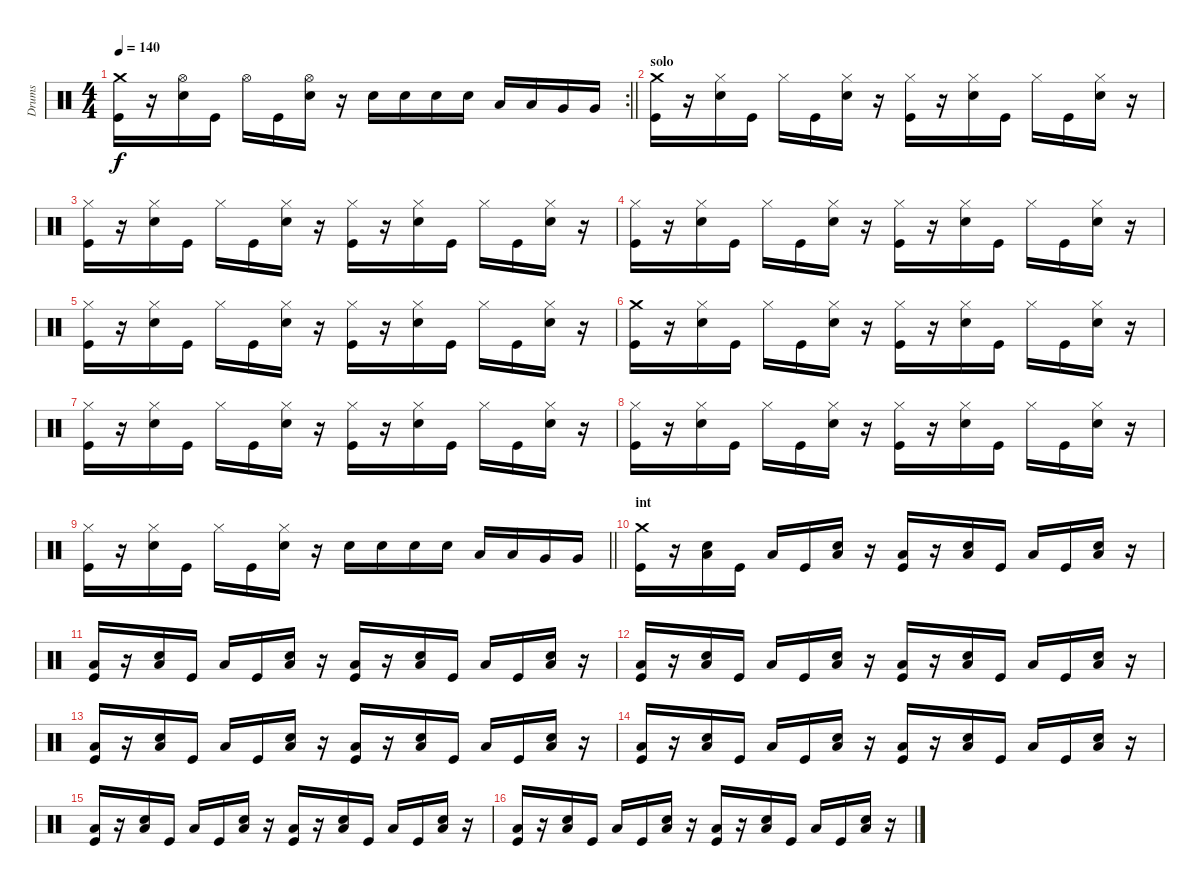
\track ("Drums" "Drums") {instrument percussion}
\staff {score}
\articulation defaults
\rc 2
\ts (4 4)
\tempo 140
\clef neutral
\barLineRight lightlight
\ks c
("Crash medium (hit)" "Kick (hit)").16{dy f} r.16 ("Hi-Hat (open)" "Snare (hit) 2").16 "Kick (hit)".16 "Hi-Hat (open)".16 "Kick (hit)".16 ("Hi-Hat (open)" "Snare (hit) 2").16 r.16 "Snare (hit) 2".16 "Snare (hit) 2".16 "Snare (hit) 2".16 "Snare (hit) 2".16 "Low Tom (hit)".16 "Low Tom (hit)".16 "Very Low Tom (hit)".16 "Very Low Tom (hit)".16 |
\section ("" "solo")
("Crash medium (hit)" "Kick (hit)").16 r.16 ("Hi-Hat (closed)" "Snare (hit) 2").16 "Kick (hit)".16 "Hi-Hat (closed)".16 "Kick (hit)".16 ("Hi-Hat (closed)" "Snare (hit) 2").16 r.16 ("Hi-Hat (closed)" "Kick (hit)").16 r.16 ("Hi-Hat (closed)" "Snare (hit) 2").16 "Kick (hit)".16 "Hi-Hat (closed)".16 "Kick (hit)".16 ("Hi-Hat (closed)" "Snare (hit) 2").16 r.16 |
("Hi-Hat (closed)" "Kick (hit)").16 r.16 ("Hi-Hat (closed)" "Snare (hit) 2").16 "Kick (hit)".16 "Hi-Hat (closed)".16 "Kick (hit)".16 ("Hi-Hat (closed)" "Snare (hit) 2").16 r.16 ("Hi-Hat (closed)" "Kick (hit)").16 r.16 ("Hi-Hat (closed)" "Snare (hit) 2").16 "Kick (hit)".16 "Hi-Hat (closed)".16 "Kick (hit)".16 ("Hi-Hat (closed)" "Snare (hit) 2").16 r.16 |
("Hi-Hat (closed)" "Kick (hit)").16 r.16 ("Hi-Hat (closed)" "Snare (hit) 2").16 "Kick (hit)".16 "Hi-Hat (closed)".16 "Kick (hit)".16 ("Hi-Hat (closed)" "Snare (hit) 2").16 r.16 ("Hi-Hat (closed)" "Kick (hit)").16 r.16 ("Hi-Hat (closed)" "Snare (hit) 2").16 "Kick (hit)".16 "Hi-Hat (closed)".16 "Kick (hit)".16 ("Hi-Hat (closed)" "Snare (hit) 2").16 r.16 |
("Hi-Hat (closed)" "Kick (hit)").16 r.16 ("Hi-Hat (closed)" "Snare (hit) 2").16 "Kick (hit)".16 "Hi-Hat (closed)".16 "Kick (hit)".16 ("Hi-Hat (closed)" "Snare (hit) 2").16 r.16 ("Hi-Hat (closed)" "Kick (hit)").16 r.16 ("Hi-Hat (closed)" "Snare (hit) 2").16 "Kick (hit)".16 "Hi-Hat (closed)".16 "Kick (hit)".16 ("Hi-Hat (closed)" "Snare (hit) 2").16 r.16 |
("Crash medium (hit)" "Kick (hit)").16 r.16 ("Hi-Hat (closed)" "Snare (hit) 2").16 "Kick (hit)".16 "Hi-Hat (closed)".16 "Kick (hit)".16 ("Hi-Hat (closed)" "Snare (hit) 2").16 r.16 ("Hi-Hat (closed)" "Kick (hit)").16 r.16 ("Hi-Hat (closed)" "Snare (hit) 2").16 "Kick (hit)".16 "Hi-Hat (closed)".16 "Kick (hit)".16 ("Hi-Hat (closed)" "Snare (hit) 2").16 r.16 |
("Hi-Hat (closed)" "Kick (hit)").16 r.16 ("Hi-Hat (closed)" "Snare (hit) 2").16 "Kick (hit)".16 "Hi-Hat (closed)".16 "Kick (hit)".16 ("Hi-Hat (closed)" "Snare (hit) 2").16 r.16 ("Hi-Hat (closed)" "Kick (hit)").16 r.16 ("Hi-Hat (closed)" "Snare (hit) 2").16 "Kick (hit)".16 "Hi-Hat (closed)".16 "Kick (hit)".16 ("Hi-Hat (closed)" "Snare (hit) 2").16 r.16 |
("Hi-Hat (closed)" "Kick (hit)").16 r.16 ("Hi-Hat (closed)" "Snare (hit) 2").16 "Kick (hit)".16 "Hi-Hat (closed)".16 "Kick (hit)".16 ("Hi-Hat (closed)" "Snare (hit) 2").16 r.16 ("Hi-Hat (closed)" "Kick (hit)").16 r.16 ("Hi-Hat (closed)" "Snare (hit) 2").16 "Kick (hit)".16 "Hi-Hat (closed)".16 "Kick (hit)".16 ("Hi-Hat (closed)" "Snare (hit) 2").16 r.16 |
\barLineRight lightlight
("Hi-Hat (closed)" "Kick (hit)").16 r.16 ("Hi-Hat (closed)" "Snare (hit) 2").16 "Kick (hit)".16 "Hi-Hat (closed)".16 "Kick (hit)".16 ("Hi-Hat (closed)" "Snare (hit) 2").16 r.16 "Snare (hit) 2".16 "Snare (hit) 2".16 "Snare (hit) 2".16 "Snare (hit) 2".16 "Low Tom (hit)".16 "Low Tom (hit)".16 "Very Low Tom (hit)".16 "Very Low Tom (hit)".16 |
\section ("" "int")
("Crash medium (hit)" "Kick (hit)").16 r.16 ("Low Floor Tom (hit)" "Snare (hit) 2").16 "Kick (hit)".16 "Low Floor Tom (hit)".16 "Kick (hit)".16 ("Low Floor Tom (hit)" "Snare (hit) 2").16 r.16 ("Low Floor Tom (hit)" "Kick (hit)").16 r.16 ("Low Floor Tom (hit)" "Snare (hit) 2").16 "Kick (hit)".16 "Low Floor Tom (hit)".16 "Kick (hit)".16 ("Low Floor Tom (hit)" "Snare (hit) 2").16 r.16 |
("Low Floor Tom (hit)" "Kick (hit)").16 r.16 ("Low Floor Tom (hit)" "Snare (hit) 2").16 "Kick (hit)".16 "Low Floor Tom (hit)".16 "Kick (hit)".16 ("Low Floor Tom (hit)" "Snare (hit) 2").16 r.16 ("Low Floor Tom (hit)" "Kick (hit)").16 r.16 ("Low Floor Tom (hit)" "Snare (hit) 2").16 "Kick (hit)".16 "Low Floor Tom (hit)".16 "Kick (hit)".16 ("Low Floor Tom (hit)" "Snare (hit) 2").16 r.16 |
("Low Floor Tom (hit)" "Kick (hit)").16 r.16 ("Low Floor Tom (hit)" "Snare (hit) 2").16 "Kick (hit)".16 "Low Floor Tom (hit)".16 "Kick (hit)".16 ("Low Floor Tom (hit)" "Snare (hit) 2").16 r.16 ("Low Floor Tom (hit)" "Kick (hit)").16 r.16 ("Low Floor Tom (hit)" "Snare (hit) 2").16 "Kick (hit)".16 "Low Floor Tom (hit)".16 "Kick (hit)".16 ("Low Floor Tom (hit)" "Snare (hit) 2").16 r.16 |
("Low Floor Tom (hit)" "Kick (hit)").16 r.16 ("Low Floor Tom (hit)" "Snare (hit) 2").16 "Kick (hit)".16 "Low Floor Tom (hit)".16 "Kick (hit)".16 ("Low Floor Tom (hit)" "Snare (hit) 2").16 r.16 ("Low Floor Tom (hit)" "Kick (hit)").16 r.16 ("Low Floor Tom (hit)" "Snare (hit) 2").16 "Kick (hit)".16 "Low Floor Tom (hit)".16 "Kick (hit)".16 ("Low Floor Tom (hit)" "Snare (hit) 2").16 r.16 |
("Low Floor Tom (hit)" "Kick (hit)").16 r.16 ("Low Floor Tom (hit)" "Snare (hit) 2").16 "Kick (hit)".16 "Low Floor Tom (hit)".16 "Kick (hit)".16 ("Low Floor Tom (hit)" "Snare (hit) 2").16 r.16 ("Low Floor Tom (hit)" "Kick (hit)").16 r.16 ("Low Floor Tom (hit)" "Snare (hit) 2").16 "Kick (hit)".16 "Low Floor Tom (hit)".16 "Kick (hit)".16 ("Low Floor Tom (hit)" "Snare (hit) 2").16 r.16 |
("Low Floor Tom (hit)" "Kick (hit)").16 r.16 ("Low Floor Tom (hit)" "Snare (hit) 2").16 "Kick (hit)".16 "Low Floor Tom (hit)".16 "Kick (hit)".16 ("Low Floor Tom (hit)" "Snare (hit) 2").16 r.16 ("Low Floor Tom (hit)" "Kick (hit)").16 r.16 ("Low Floor Tom (hit)" "Snare (hit) 2").16 "Kick (hit)".16 "Low Floor Tom (hit)".16 "Kick (hit)".16 ("Low Floor Tom (hit)" "Snare (hit) 2").16 r.16 |
("Low Floor Tom (hit)" "Kick (hit)").16 r.16 ("Low Floor Tom (hit)" "Snare (hit) 2").16 "Kick (hit)".16 "Low Floor Tom (hit)".16 "Kick (hit)".16 ("Low Floor Tom (hit)" "Snare (hit) 2").16 r.16 ("Low Floor Tom (hit)" "Kick (hit)").16 r.16 ("Low Floor Tom (hit)" "Snare (hit) 2").16 "Kick (hit)".16 "Low Floor Tom (hit)".16 "Kick (hit)".16 ("Low Floor Tom (hit)" "Snare (hit) 2").16 r.16
